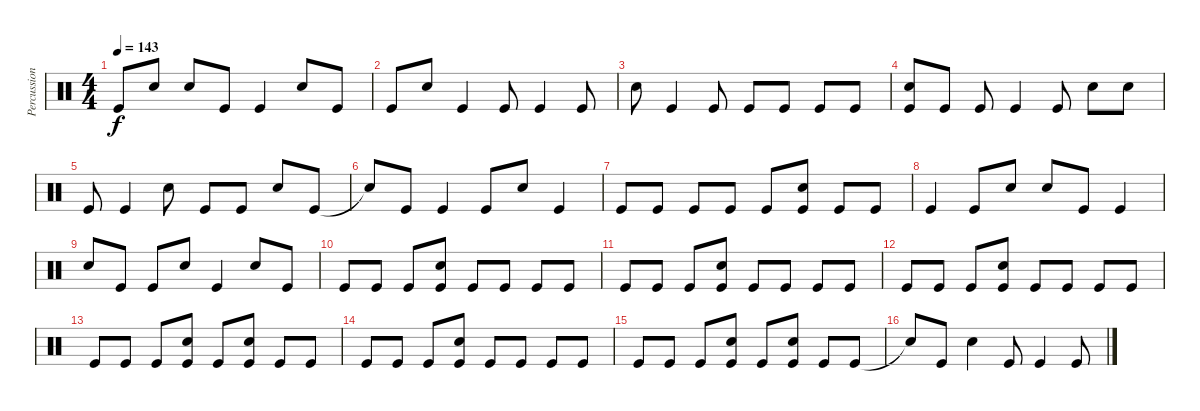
\track ("Percussion" "Percussion") {instrument percussion}
\staff {score}
\articulation defaults
\ts (4 4)
\tempo 143
\clef neutral
\ks c "Kick (hit)".8{dy f} "Electric Snare (hit)".8 "Electric Snare (hit)".8 "Kick (hit)".8 "Kick (hit)".4 "Electric Snare (hit)".8 "Kick (hit)".8
|
"Kick (hit)".8 "Electric Snare (hit)".8 "Kick (hit)".4 "Kick (hit)".8 "Kick (hit)".4 "Kick (hit)".8 |
"Electric Snare (hit)".8 "Kick (hit)".4 "Kick (hit)".8 "Kick (hit)".8 "Kick (hit)".8 "Kick (hit)".8 "Kick (hit)".8 |
("Electric Snare (hit)" "Kick (hit)").8 "Kick (hit)".8 "Kick (hit)".8 "Kick (hit)".4 "Kick (hit)".8 "Electric Snare (hit)".8 "Electric Snare (hit)".8 |
"Kick (hit)".8 "Kick (hit)".4 "Electric Snare (hit)".8 "Kick (hit)".8 "Kick (hit)".8 "Electric Snare (hit)".8 "Kick (hit)".8 |
"Snare (hit)"{t}.8 "Kick (hit)".8 "Kick (hit)".4 "Kick (hit)".8 "Electric Snare (hit)".8 "Kick (hit)".4 |
"Kick (hit)".8 "Kick (hit)".8 "Kick (hit)".8 "Kick (hit)".8 "Kick (hit)".8 ("Electric Snare (hit)" "Kick (hit)").8 "Kick (hit)".8 "Kick (hit)".8 |
"Kick (hit)".4 "Kick (hit)".8 "Electric Snare (hit)".8 "Electric Snare (hit)".8 "Kick (hit)".8 "Kick (hit)".4 |
"Electric Snare (hit)".8 "Kick (hit)".8 "Kick (hit)".8 "Electric Snare (hit)".8 "Kick (hit)".4 "Electric Snare (hit)".8 "Kick (hit)".8 |
"Kick (hit)".8 "Kick (hit)".8 "Kick (hit)".8 ("Electric Snare (hit)" "Kick (hit)").8 "Kick (hit)".8 "Kick (hit)".8 "Kick (hit)".8 "Kick (hit)".8 |
"Kick (hit)".8 "Kick (hit)".8 "Kick (hit)".8 ("Electric Snare (hit)" "Kick (hit)").8 "Kick (hit)".8 "Kick (hit)".8 "Kick (hit)".8 "Kick (hit)".8 |
"Kick (hit)".8 "Kick (hit)".8 "Kick (hit)".8 ("Electric Snare (hit)" "Kick (hit)").8 "Kick (hit)".8 "Kick (hit)".8 "Kick (hit)".8 "Kick (hit)".8 |
"Kick (hit)".8 "Kick (hit)".8 "Kick (hit)".8 ("Electric Snare (hit)" "Kick (hit)").8 "Kick (hit)".8 ("Electric Snare (hit)" "Kick (hit)").8 "Kick (hit)".8 "Kick (hit)".8 |
"Kick (hit)".8 "Kick (hit)".8 "Kick (hit)".8 ("Electric Snare (hit)" "Kick (hit)").8 "Kick (hit)".8 "Kick (hit)".8 "Kick (hit)".8 "Kick (hit)".8 |
"Kick (hit)".8 "Kick (hit)".8 "Kick (hit)".8 ("Electric Snare (hit)" "Kick (hit)").8 "Kick (hit)".8 ("Electric Snare (hit)" "Kick (hit)").8 "Kick (hit)".8 "Kick (hit)".8 |
"Snare (hit)"{t}.8 "Kick (hit)".8 "Electric Snare (hit)".4 "Kick (hit)".8 "Kick (hit)".4 "Kick (hit)".8
